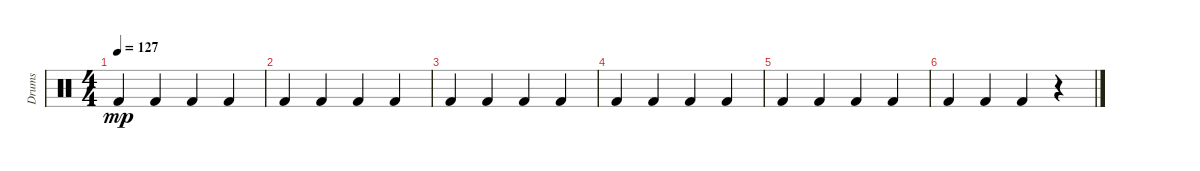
\track ("Drums" "Drums") {instrument percussion}
\staff {score}
\articulation defaults
\ts (4 4)
\tempo 127
\clef neutral
\ks c "Kick (hit) 2".4{dy mp} "Kick (hit) 2".4 "Kick (hit) 2".4 "Kick (hit) 2".4
|
"Kick (hit) 2".4 "Kick (hit) 2".4 "Kick (hit) 2".4 "Kick (hit) 2".4 |
"Kick (hit) 2".4 "Kick (hit) 2".4 "Kick (hit) 2".4 "Kick (hit) 2".4 |
"Kick (hit) 2".4 "Kick (hit) 2".4 "Kick (hit) 2".4 "Kick (hit) 2".4 |
"Kick (hit) 2".4 "Kick (hit) 2".4 "Kick (hit) 2".4 "Kick (hit) 2".4 |
"Kick (hit) 2".4 "Kick (hit) 2".4 "Kick (hit) 2".4 r.4
